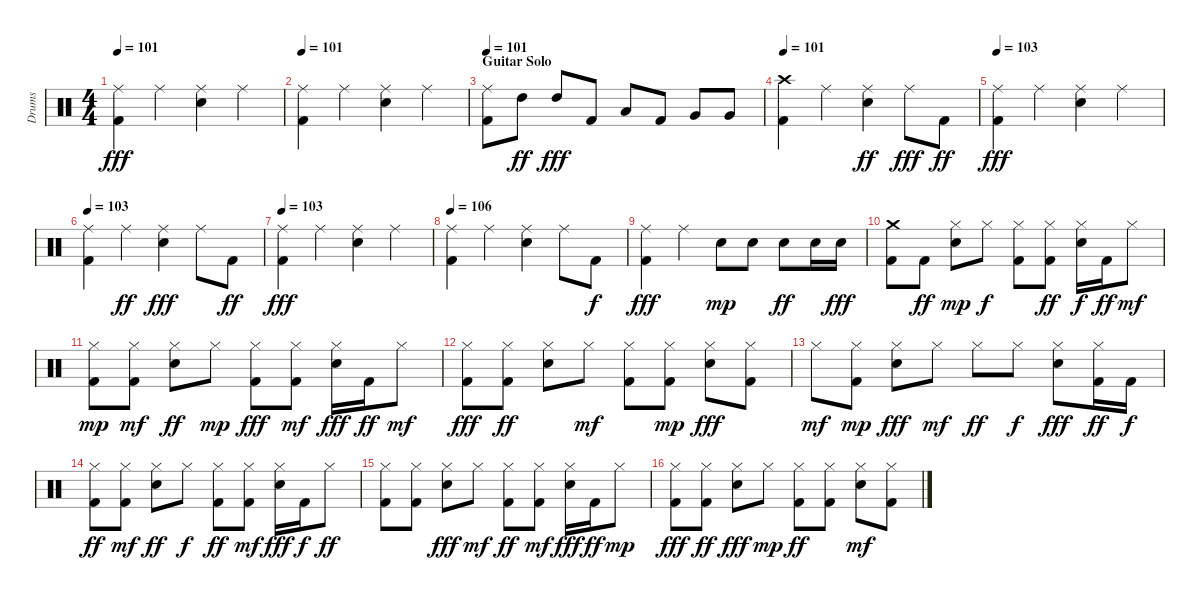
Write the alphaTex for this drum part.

\track ("Drums" "Drums") {instrument percussion}
\staff {score}
\articulation defaults
\ts (4 4)
\tempo 101
\clef neutral
\ks c
("Ride (middle)" "Kick (hit) 2").4{dy fff} "Ride (middle)".4 ("Snare (hit) 2" "Ride (middle)").4 "Ride (middle)".4 |
\tempo 101
("Ride (middle)" "Kick (hit) 2").4 "Ride (middle)".4 ("Ride (middle)" "Snare (hit) 2").4 "Ride (middle)".4 |
\section ("" "Guitar Solo")
\tempo 101
("Ride (middle)" "Kick (hit) 2").8 "High Tom (hit)".8{dy ff} "High Tom (hit)".8{dy fff} "Kick (hit) 2".8 "Low Tom (hit)".8 "Kick (hit) 2".8 "Very Low Tom (hit)".8 "Very Low Tom (hit)".8 |
\tempo 101
("Crash high (hit)" "Kick (hit) 2").4 "Ride (middle)".4 ("Ride (middle)" "Snare (hit) 2").4{dy ff} "Ride (middle)".8{dy fff} "Kick (hit) 2".8{dy ff} |
\tempo 103
("Ride (middle)" "Kick (hit) 2").4{dy fff} "Ride (middle)".4 ("Ride (middle)" "Snare (hit) 2").4 "Ride (middle)".4 |
\tempo 103
("Ride (middle)" "Kick (hit) 2").4 "Ride (middle)".4{dy ff} ("Ride (middle)" "Snare (hit) 2").4{dy fff} "Ride (middle)".8 "Kick (hit) 2".8{dy ff} |
\tempo 103
("Ride (middle)" "Kick (hit) 2").4{dy fff} "Ride (middle)".4 ("Snare (hit) 2" "Ride (middle)").4 "Ride (middle)".4 |
\tempo 106
("Ride (middle)" "Kick (hit) 2").4 "Ride (middle)".4 ("Snare (hit) 2" "Ride (middle)").4 "Ride (middle)".8 "Kick (hit) 2".8{dy f} |
("Ride (middle)" "Kick (hit) 2").4{dy fff} "Ride (middle)".4 "Snare (hit) 2".8{dy mp} "Snare (hit) 2".8 "Snare (hit) 2".8{dy ff} "Snare (hit) 2".16 "Snare (hit) 2".16{dy fff} |
("Kick (hit) 2" "Crash medium (hit)").8 "Kick (hit) 2".8{dy ff} ("Snare (hit) 2" "Hi-Hat (closed)").8{dy mp} "Hi-Hat (closed)".8{dy f} ("Hi-Hat (closed)" "Kick (hit) 2").8 ("Hi-Hat (closed)" "Kick (hit) 2").8{dy ff} ("Hi-Hat (closed)" "Snare (hit) 2").16{dy f} "Kick (hit) 2".16{dy ff} "Hi-Hat (closed)".8{dy mf} |
("Kick (hit) 2" "Hi-Hat (closed)").8{dy mp} ("Kick (hit) 2" "Hi-Hat (closed)").8{dy mf} ("Snare (hit) 2" "Hi-Hat (closed)").8{dy ff} "Hi-Hat (closed)".8{dy mp} ("Hi-Hat (closed)" "Kick (hit) 2").8{dy fff} ("Kick (hit) 2" "Hi-Hat (closed)").8{dy mf} ("Hi-Hat (closed)" "Snare (hit) 2").16{dy fff} "Kick (hit) 2".16{dy ff} "Hi-Hat (closed)".8{dy mf} |
("Kick (hit) 2" "Hi-Hat (closed)").8{dy fff} ("Hi-Hat (closed)" "Kick (hit) 2").8{dy ff} ("Snare (hit) 2" "Hi-Hat (closed)").8 "Hi-Hat (closed)".8{dy mf} ("Hi-Hat (closed)" "Kick (hit) 2").8 ("Hi-Hat (closed)" "Kick (hit) 2").8{dy mp} ("Hi-Hat (closed)" "Snare (hit) 2").8{dy fff} ("Hi-Hat (closed)" "Kick (hit) 2").8 |
"Hi-Hat (closed)".8{dy mf} ("Kick (hit) 2" "Hi-Hat (closed)").8{dy mp} ("Hi-Hat (closed)" "Snare (hit) 2").8{dy fff} "Hi-Hat (closed)".8{dy mf} "Hi-Hat (closed)".8{dy ff} "Hi-Hat (closed)".8{dy f} ("Snare (hit) 2" "Hi-Hat (closed)").8{dy fff} ("Kick (hit) 2" "Hi-Hat (closed)").16{dy ff} "Kick (hit) 2".16{dy f} |
("Hi-Hat (closed)" "Kick (hit) 2").8{dy ff} ("Kick (hit) 2" "Hi-Hat (closed)").8{dy mf} ("Hi-Hat (closed)" "Snare (hit) 2").8{dy ff} "Hi-Hat (closed)".8{dy f} ("Hi-Hat (closed)" "Kick (hit) 2").8{dy ff} ("Hi-Hat (closed)" "Kick (hit) 2").8{dy mf} ("Hi-Hat (closed)" "Snare (hit) 2").16{dy fff} "Kick (hit) 2".16{dy f} "Hi-Hat (closed)".8{dy ff} |
("Hi-Hat (closed)" "Kick (hit) 2").8 ("Hi-Hat (closed)" "Kick (hit) 2").8 ("Hi-Hat (closed)" "Snare (hit) 2").8{dy fff} "Hi-Hat (closed)".8{dy mf} ("Hi-Hat (closed)" "Kick (hit) 2").8{dy ff} ("Hi-Hat (closed)" "Kick (hit) 2").8{dy mf} ("Hi-Hat (closed)" "Snare (hit) 2").16{dy fff} "Kick (hit) 2".16{dy ff} "Hi-Hat (closed)".8{dy mp} |
("Hi-Hat (closed)" "Kick (hit) 2").8{dy fff} ("Hi-Hat (closed)" "Kick (hit) 2").8{dy ff} ("Snare (hit) 2" "Hi-Hat (closed)").8{dy fff} "Hi-Hat (closed)".8{dy mp} ("Hi-Hat (closed)" "Kick (hit) 2").8{dy ff} ("Hi-Hat (closed)" "Kick (hit) 2").8 ("Snare (hit) 2" "Hi-Hat (closed)").8{dy mf} ("Kick (hit) 2" "Hi-Hat (closed)").8
